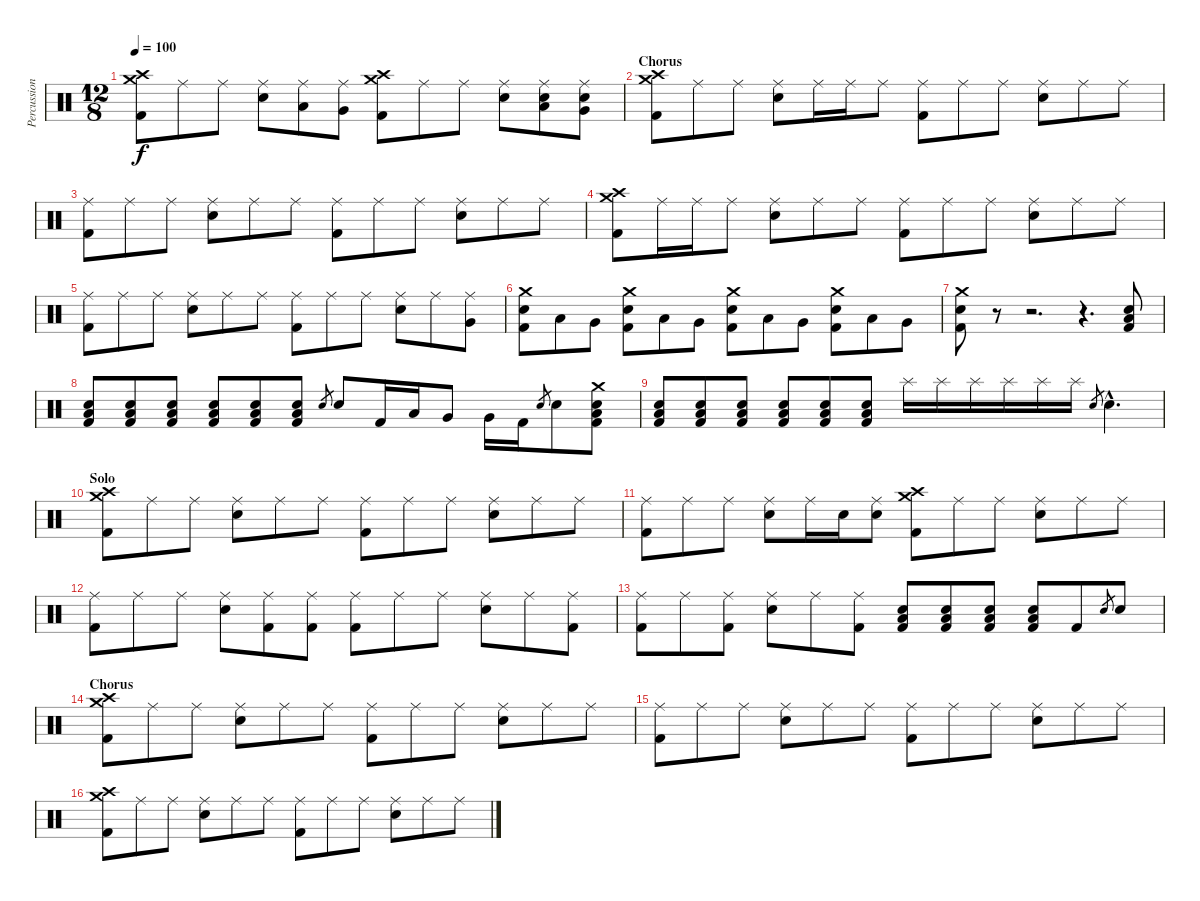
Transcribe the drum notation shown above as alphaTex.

\track ("Percussion" "Percussion") {instrument percussion}
\staff {score}
\articulation defaults
\ts (12 8)
\tempo 100
\clef neutral
\ks c
("Crash medium (hit)" "Kick (hit) 2" "Crash high (hit)").8{dy f} "Ride (middle)".8 "Ride (middle)".8 ("Snare (hit) 2" "Ride (middle)").8 ("Low Tom (hit)" "Ride (middle)").8 ("Very Low Tom (hit)" "Ride (middle)").8 ("Crash medium (hit)" "Kick (hit) 2" "Crash high (hit)").8 "Ride (middle)".8 "Ride (middle)".8 ("Snare (hit) 2" "Ride (middle)").8 ("Snare (hit) 2" "Low Tom (hit)" "Ride (middle)").8 ("Snare (hit) 2" "Very Low Tom (hit)" "Ride (middle)").8 |
\section ("" "Chorus")
("Crash medium (hit)" "Kick (hit) 2" "Crash high (hit)").8 "Ride (middle)".8 "Ride (middle)".8 ("Snare (hit) 2" "Ride (middle)").8 "Ride (middle)".16 "Ride (middle)".16 "Ride (middle)".8 ("Kick (hit) 2" "Ride (middle)").8 "Ride (middle)".8 "Ride (middle)".8 ("Snare (hit) 2" "Ride (middle)").8 "Ride (middle)".8 "Ride (middle)".8 |
("Kick (hit) 2" "Ride (middle)").8 "Ride (middle)".8 "Ride (middle)".8 ("Snare (hit) 2" "Ride (middle)").8 "Ride (middle)".8 "Ride (middle)".8 ("Kick (hit) 2" "Ride (middle)").8 "Ride (middle)".8 "Ride (middle)".8 ("Snare (hit) 2" "Ride (middle)").8 "Ride (middle)".8 "Ride (middle)".8 |
("Crash medium (hit)" "Kick (hit) 2" "Crash high (hit)").8 "Ride (middle)".16 "Ride (middle)".16 "Ride (middle)".8 ("Snare (hit) 2" "Ride (middle)").8 "Ride (middle)".8 "Ride (middle)".8 ("Kick (hit) 2" "Ride (middle)").8 "Ride (middle)".8 "Ride (middle)".8 ("Snare (hit) 2" "Ride (middle)").8 "Ride (middle)".8 "Ride (middle)".8 |
("Kick (hit) 2" "Ride (middle)").8 "Ride (middle)".8 "Ride (middle)".8 ("Snare (hit) 2" "Ride (middle)").8 "Ride (middle)".8 "Ride (middle)".8 ("Kick (hit) 2" "Ride (middle)").8 "Ride (middle)".8 "Ride (middle)".8 ("Snare (hit) 2" "Ride (middle)").8 "Ride (middle)".8 ("Very Low Tom (hit)" "Ride (middle)").8 |
("Crash medium (hit)" "Kick (hit) 2" "Snare (hit) 2").8 "Low Tom (hit)".8 "Very Low Tom (hit)".8 ("Crash medium (hit)" "Kick (hit) 2" "Snare (hit) 2").8 "Low Tom (hit)".8 "Very Low Tom (hit)".8 ("Crash medium (hit)" "Kick (hit) 2" "Snare (hit) 2").8 "Low Tom (hit)".8 "Very Low Tom (hit)".8 ("Crash medium (hit)" "Kick (hit) 2" "Snare (hit) 2").8 "Low Tom (hit)".8 "Very Low Tom (hit)".8 |
("Crash medium (hit)" "Kick (hit) 2" "Snare (hit) 2").8 r.8 r.2{d} r.4{d} ("Kick (hit) 2" "Low Floor Tom (hit)" "Snare (hit) 2").8 |
("Kick (hit) 2" "Low Floor Tom (hit)" "Snare (hit) 2").8 ("Kick (hit) 2" "Low Floor Tom (hit)" "Snare (hit) 2").8 ("Kick (hit) 2" "Low Floor Tom (hit)" "Snare (hit) 2").8 ("Kick (hit) 2" "Low Floor Tom (hit)" "Snare (hit) 2").8 ("Kick (hit) 2" "Low Floor Tom (hit)" "Snare (hit) 2").8 ("Kick (hit) 2" "Low Floor Tom (hit)" "Snare (hit) 2").8 "Snare (hit) 2".8{gr} "Snare (hit) 2".8 "Kick (hit) 2".16 "Low Tom (hit)".16 "Very Low Tom (hit)".8 "Very Low Tom (hit)".16 "Kick (hit) 2".16 "Snare (hit) 2".8{gr} "Snare (hit) 2".8 ("Kick (hit) 2" "Low Floor Tom (hit)" "Snare (hit) 2" "Crash medium (hit)").8 |
("Kick (hit) 2" "Low Floor Tom (hit)" "Snare (hit) 2").8 ("Kick (hit) 2" "Low Floor Tom (hit)" "Snare (hit) 2").8 ("Kick (hit) 2" "Low Floor Tom (hit)" "Snare (hit) 2").8 ("Kick (hit) 2" "Low Floor Tom (hit)" "Snare (hit) 2").8 ("Kick (hit) 2" "Low Floor Tom (hit)" "Snare (hit) 2").8 ("Kick (hit) 2" "Low Floor Tom (hit)" "Snare (hit) 2").8 "Splash (hit)".16 "Splash (hit)".16 "Splash (hit)".16 "Splash (hit)".16 "Splash (hit)".16 "Splash (hit)".16 "Snare (hit) 2".8{gr} "Snare (hit) 2"{hac}.4{d} |
\section ("" "Solo")
("Crash medium (hit)" "Kick (hit) 2" "Crash high (hit)").8 "Ride (middle)".8 "Ride (middle)".8 ("Snare (hit) 2" "Ride (middle)").8 "Ride (middle)".8 "Ride (middle)".8 ("Kick (hit) 2" "Ride (middle)").8 "Ride (middle)".8 "Ride (middle)".8 ("Snare (hit) 2" "Ride (middle)").8 "Ride (middle)".8 "Ride (middle)".8 |
("Kick (hit) 2" "Ride (middle)").8 "Ride (middle)".8 "Ride (middle)".8 ("Snare (hit) 2" "Ride (middle)").8 "Ride (middle)".16 "Snare (hit) 2".16 ("Snare (hit) 2" "Ride (middle)").8 ("Crash medium (hit)" "Kick (hit) 2" "Crash high (hit)").8 "Ride (middle)".8 "Ride (middle)".8 ("Snare (hit) 2" "Ride (middle)").8 "Ride (middle)".8 "Ride (middle)".8 |
("Kick (hit) 2" "Ride (middle)").8 "Ride (middle)".8 "Ride (middle)".8 ("Snare (hit) 2" "Ride (middle)").8 ("Kick (hit) 2" "Ride (middle)").8 ("Kick (hit) 2" "Ride (middle)").8 ("Kick (hit) 2" "Ride (middle)").8 "Ride (middle)".8 "Ride (middle)".8 ("Snare (hit) 2" "Ride (middle)").8 "Ride (middle)".8 ("Kick (hit) 2" "Ride (middle)").8 |
("Kick (hit) 2" "Ride (middle)").8 "Ride (middle)".8 ("Kick (hit) 2" "Ride (middle)").8 ("Snare (hit) 2" "Ride (middle)").8 "Ride (middle)".8 ("Kick (hit) 2" "Ride (middle)").8 ("Kick (hit) 2" "Snare (hit) 2" "Low Floor Tom (hit)").8 ("Kick (hit) 2" "Snare (hit) 2" "Low Floor Tom (hit)").8 ("Kick (hit) 2" "Snare (hit) 2" "Low Floor Tom (hit)").8 ("Kick (hit) 2" "Snare (hit) 2" "Low Floor Tom (hit)").8 "Kick (hit) 2".8 "Snare (hit) 2".8{gr} "Snare (hit) 2".8 |
\section ("" "Chorus")
("Crash medium (hit)" "Kick (hit) 2" "Crash high (hit)").8 "Ride (middle)".8 "Ride (middle)".8 ("Snare (hit) 2" "Ride (middle)").8 "Ride (middle)".8 "Ride (middle)".8 ("Kick (hit) 2" "Ride (middle)").8 "Ride (middle)".8 "Ride (middle)".8 ("Snare (hit) 2" "Ride (middle)").8 "Ride (middle)".8 "Ride (middle)".8 |
("Kick (hit) 2" "Ride (middle)").8 "Ride (middle)".8 "Ride (middle)".8 ("Snare (hit) 2" "Ride (middle)").8 "Ride (middle)".8 "Ride (middle)".8 ("Kick (hit) 2" "Ride (middle)").8 "Ride (middle)".8 "Ride (middle)".8 ("Snare (hit) 2" "Ride (middle)").8 "Ride (middle)".8 "Ride (middle)".8 |
("Crash medium (hit)" "Kick (hit) 2" "Crash high (hit)").8 "Ride (middle)".8 "Ride (middle)".8 ("Snare (hit) 2" "Ride (middle)").8 "Ride (middle)".8 "Ride (middle)".8 ("Kick (hit) 2" "Ride (middle)").8 "Ride (middle)".8 "Ride (middle)".8 ("Snare (hit) 2" "Ride (middle)").8 "Ride (middle)".8 "Ride (middle)".8
